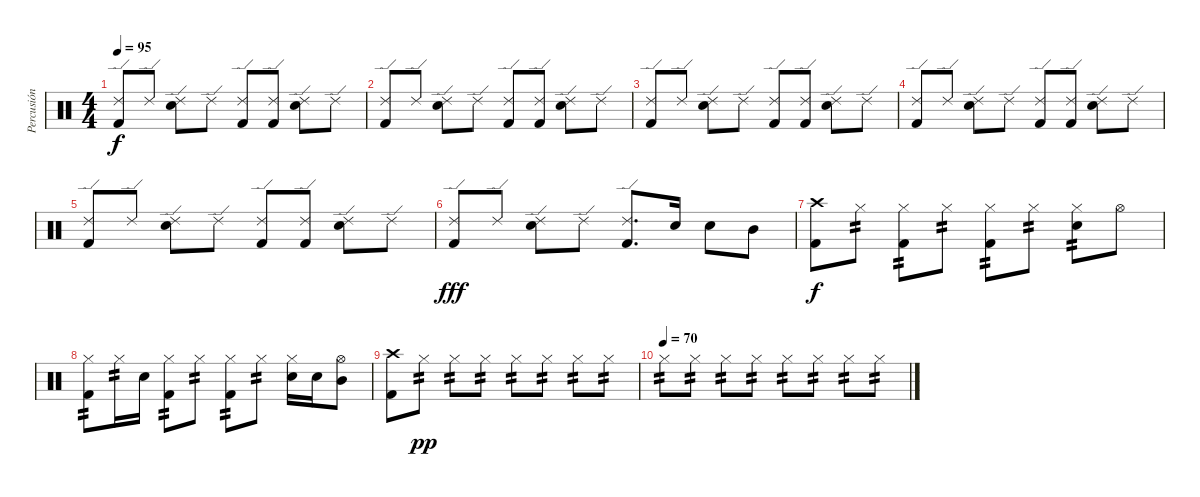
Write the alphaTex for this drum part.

\track ("Percusión" "Percusión") {instrument percussion}
\staff {score}
\articulation defaults
\ts (4 4)
\tempo 95
\clef neutral
\ks c
("Ride (edge) 2" "Kick (hit) 2").8{dy f} "Ride (edge) 2".8 ("Ride (edge) 2" "Electric Snare (hit)").8 "Ride (edge) 2".8 ("Ride (edge) 2" "Kick (hit) 2").8 ("Ride (edge) 2" "Kick (hit) 2").8 ("Ride (edge) 2" "Electric Snare (hit)").8 "Ride (edge) 2".8 |
("Ride (edge) 2" "Kick (hit) 2").8 "Ride (edge) 2".8 ("Ride (edge) 2" "Electric Snare (hit)").8 "Ride (edge) 2".8 ("Ride (edge) 2" "Kick (hit) 2").8 ("Ride (edge) 2" "Kick (hit) 2").8 ("Ride (edge) 2" "Electric Snare (hit)").8 "Ride (edge) 2".8 |
("Ride (edge) 2" "Kick (hit) 2").8 "Ride (edge) 2".8 ("Ride (edge) 2" "Electric Snare (hit)").8 "Ride (edge) 2".8 ("Ride (edge) 2" "Kick (hit) 2").8 ("Ride (edge) 2" "Kick (hit) 2").8 ("Ride (edge) 2" "Electric Snare (hit)").8 "Ride (edge) 2".8 |
("Ride (edge) 2" "Kick (hit) 2").8 "Ride (edge) 2".8 ("Ride (edge) 2" "Electric Snare (hit)").8 "Ride (edge) 2".8 ("Ride (edge) 2" "Kick (hit) 2").8 ("Ride (edge) 2" "Kick (hit) 2").8 ("Ride (edge) 2" "Electric Snare (hit)").8 "Ride (edge) 2".8 |
("Ride (edge) 2" "Kick (hit) 2").8 "Ride (edge) 2".8 ("Ride (edge) 2" "Electric Snare (hit)").8 "Ride (edge) 2".8 ("Ride (edge) 2" "Kick (hit) 2").8 ("Ride (edge) 2" "Kick (hit) 2").8 ("Ride (edge) 2" "Electric Snare (hit)").8 "Ride (edge) 2".8 |
("Ride (edge) 2" "Kick (hit) 2").8{dy fff} "Ride (edge) 2".8 ("Ride (edge) 2" "Electric Snare (hit)").8 "Ride (edge) 2".8 ("Ride (edge) 2" "Kick (hit) 2").8{d} "Electric Snare (hit)".16 "Electric Snare (hit)".8 "Mid Tom (hit)".8 |
("Crash high (hit)" "Kick (hit) 2").8{dy f} "Hi-Hat (closed)".8{tp 2} ("Hi-Hat (closed)" "Kick (hit) 2").8{tp 2} "Hi-Hat (closed)".8{tp 2} ("Hi-Hat (closed)" "Kick (hit) 2").8{tp 2} "Hi-Hat (closed)".8{tp 2} ("Hi-Hat (closed)" "Electric Snare (hit)").8{tp 2} "Hi-Hat (open)".8 |
("Hi-Hat (closed)" "Kick (hit) 2").8{tp 2} "Hi-Hat (closed)".16{tp 2} "Electric Snare (hit)".16 ("Hi-Hat (closed)" "Kick (hit) 2").8{tp 2} "Hi-Hat (closed)".8{tp 2} ("Hi-Hat (closed)" "Kick (hit) 2").8{tp 2} "Hi-Hat (closed)".8{tp 2} ("Hi-Hat (closed)" "Electric Snare (hit)").16 "Electric Snare (hit)".16 ("Hi-Hat (open)" "Mid Tom (hit)").8 |
("Crash high (hit)" "Kick (hit) 2").8 "Hi-Hat (closed)".8{tp 2 dy pp} "Hi-Hat (closed)".8{tp 2} "Hi-Hat (closed)".8{tp 2} "Hi-Hat (closed)".8{tp 2} "Hi-Hat (closed)".8{tp 2} "Hi-Hat (closed)".8{tp 2} "Hi-Hat (closed)".8{tp 2} |
\tempo 75
\tempo (70)
"Hi-Hat (closed)".8{tp 2} "Hi-Hat (closed)".8{tp 2} "Hi-Hat (closed)".8{tp 2} "Hi-Hat (closed)".8{tp 2} "Hi-Hat (closed)".8{tp 2} "Hi-Hat (closed)".8{tp 2} "Hi-Hat (closed)".8{tp 2} "Hi-Hat (closed)".8{tp 2}
